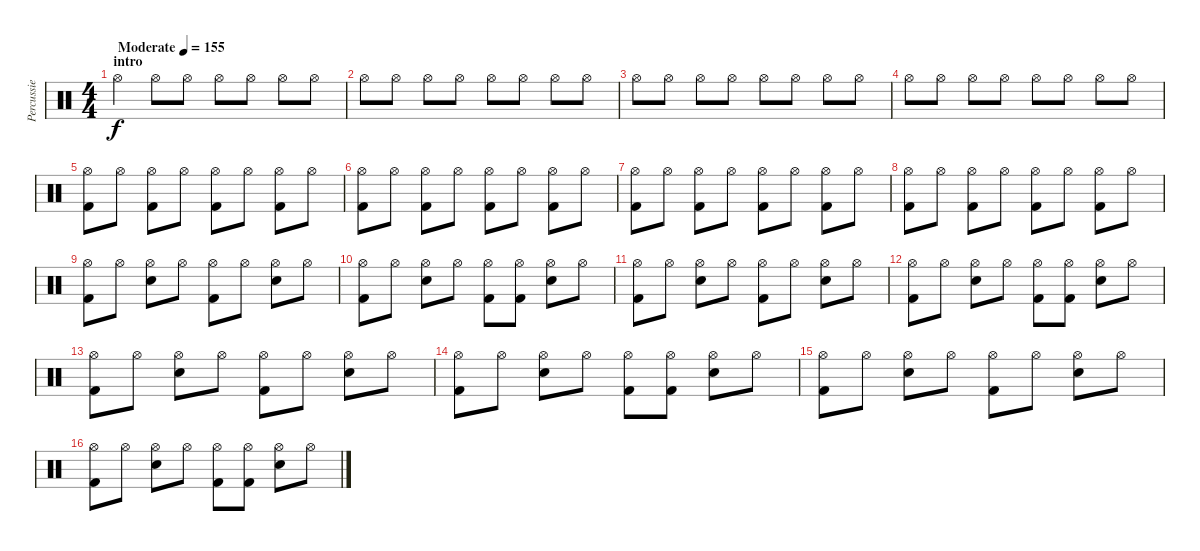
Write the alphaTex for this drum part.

\track ("Percussie" "Percussie") {instrument percussion}
\staff {score}
\articulation defaults
\ts (4 4)
\section ("" "intro")
\tempo (155 "Moderate")
\clef neutral
\ks c "Hi-Hat (open)".4{dy f} "Hi-Hat (open)".8 "Hi-Hat (open)".8 "Hi-Hat (open)".8 "Hi-Hat (open)".8 "Hi-Hat (open)".8 "Hi-Hat (open)".8
|
"Hi-Hat (open)".8 "Hi-Hat (open)".8 "Hi-Hat (open)".8 "Hi-Hat (open)".8 "Hi-Hat (open)".8 "Hi-Hat (open)".8 "Hi-Hat (open)".8 "Hi-Hat (open)".8 |
"Hi-Hat (open)".8 "Hi-Hat (open)".8 "Hi-Hat (open)".8 "Hi-Hat (open)".8 "Hi-Hat (open)".8 "Hi-Hat (open)".8 "Hi-Hat (open)".8 "Hi-Hat (open)".8 |
"Hi-Hat (open)".8 "Hi-Hat (open)".8 "Hi-Hat (open)".8 "Hi-Hat (open)".8 "Hi-Hat (open)".8 "Hi-Hat (open)".8 "Hi-Hat (open)".8 "Hi-Hat (open)".8 |
("Hi-Hat (open)" "Kick (hit) 2").8 "Hi-Hat (open)".8 ("Hi-Hat (open)" "Kick (hit) 2").8 "Hi-Hat (open)".8 ("Hi-Hat (open)" "Kick (hit) 2").8 "Hi-Hat (open)".8 ("Hi-Hat (open)" "Kick (hit) 2").8 "Hi-Hat (open)".8 |
("Hi-Hat (open)" "Kick (hit) 2").8 "Hi-Hat (open)".8 ("Hi-Hat (open)" "Kick (hit) 2").8 "Hi-Hat (open)".8 ("Hi-Hat (open)" "Kick (hit) 2").8 "Hi-Hat (open)".8 ("Hi-Hat (open)" "Kick (hit) 2").8 "Hi-Hat (open)".8 |
("Hi-Hat (open)" "Kick (hit) 2").8 "Hi-Hat (open)".8 ("Hi-Hat (open)" "Kick (hit) 2").8 "Hi-Hat (open)".8 ("Hi-Hat (open)" "Kick (hit) 2").8 "Hi-Hat (open)".8 ("Hi-Hat (open)" "Kick (hit) 2").8 "Hi-Hat (open)".8 |
("Hi-Hat (open)" "Kick (hit) 2").8 "Hi-Hat (open)".8 ("Hi-Hat (open)" "Kick (hit) 2").8 "Hi-Hat (open)".8 ("Hi-Hat (open)" "Kick (hit) 2").8 "Hi-Hat (open)".8 ("Hi-Hat (open)" "Kick (hit) 2").8 "Hi-Hat (open)".8 |
("Hi-Hat (open)" "Kick (hit) 2").8 "Hi-Hat (open)".8 ("Hi-Hat (open)" "Snare (hit) 2").8 "Hi-Hat (open)".8 ("Hi-Hat (open)" "Kick (hit) 2").8 "Hi-Hat (open)".8 ("Hi-Hat (open)" "Snare (hit) 2").8 "Hi-Hat (open)".8 |
("Hi-Hat (open)" "Kick (hit) 2").8 "Hi-Hat (open)".8 ("Hi-Hat (open)" "Snare (hit) 2").8 "Hi-Hat (open)".8 ("Hi-Hat (open)" "Kick (hit) 2").8 ("Hi-Hat (open)" "Kick (hit) 2").8 ("Hi-Hat (open)" "Snare (hit) 2").8 "Hi-Hat (open)".8 |
("Hi-Hat (open)" "Kick (hit) 2").8 "Hi-Hat (open)".8 ("Hi-Hat (open)" "Snare (hit) 2").8 "Hi-Hat (open)".8 ("Hi-Hat (open)" "Kick (hit) 2").8 "Hi-Hat (open)".8 ("Hi-Hat (open)" "Snare (hit) 2").8 "Hi-Hat (open)".8 |
("Hi-Hat (open)" "Kick (hit) 2").8 "Hi-Hat (open)".8 ("Hi-Hat (open)" "Snare (hit) 2").8 "Hi-Hat (open)".8 ("Hi-Hat (open)" "Kick (hit) 2").8 ("Hi-Hat (open)" "Kick (hit) 2").8 ("Hi-Hat (open)" "Snare (hit) 2").8 "Hi-Hat (open)".8 |
("Hi-Hat (open)" "Kick (hit) 2").8 "Hi-Hat (open)".8 ("Hi-Hat (open)" "Snare (hit) 2").8 "Hi-Hat (open)".8 ("Hi-Hat (open)" "Kick (hit) 2").8 "Hi-Hat (open)".8 ("Hi-Hat (open)" "Snare (hit) 2").8 "Hi-Hat (open)".8 |
("Hi-Hat (open)" "Kick (hit) 2").8 "Hi-Hat (open)".8 ("Hi-Hat (open)" "Snare (hit) 2").8 "Hi-Hat (open)".8 ("Hi-Hat (open)" "Kick (hit) 2").8 ("Hi-Hat (open)" "Kick (hit) 2").8 ("Hi-Hat (open)" "Snare (hit) 2").8 "Hi-Hat (open)".8 |
("Hi-Hat (open)" "Kick (hit) 2").8 "Hi-Hat (open)".8 ("Hi-Hat (open)" "Snare (hit) 2").8 "Hi-Hat (open)".8 ("Hi-Hat (open)" "Kick (hit) 2").8 "Hi-Hat (open)".8 ("Hi-Hat (open)" "Snare (hit) 2").8 "Hi-Hat (open)".8 |
("Hi-Hat (open)" "Kick (hit) 2").8 "Hi-Hat (open)".8 ("Hi-Hat (open)" "Snare (hit) 2").8 "Hi-Hat (open)".8 ("Hi-Hat (open)" "Kick (hit) 2").8 ("Hi-Hat (open)" "Kick (hit) 2").8 ("Hi-Hat (open)" "Snare (hit) 2").8 "Hi-Hat (open)".8
